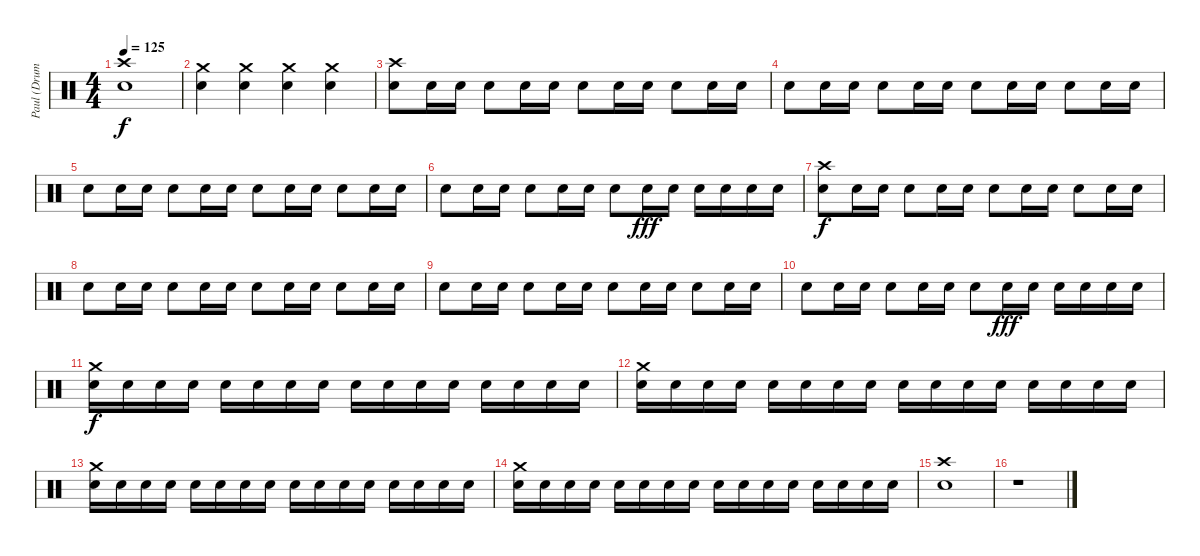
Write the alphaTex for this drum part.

\track ("Paul (Drums)" "Paul (Drum") {instrument percussion}
\staff {score}
\articulation defaults
\ts (4 4)
\tempo 125
\clef neutral
\ks c
("Crash high (hit)" "Snare (hit) 2").1{dy f} |
("Crash medium (hit)" "Snare (hit) 2").4 ("Crash medium (hit)" "Snare (hit) 2").4 ("Crash medium (hit)" "Snare (hit) 2").4 ("Crash medium (hit)" "Snare (hit) 2").4 |
("Crash high (hit)" "Snare (hit) 2").8 "Snare (hit) 2".16 "Snare (hit) 2".16 "Snare (hit) 2".8 "Snare (hit) 2".16 "Snare (hit) 2".16 "Snare (hit) 2".8 "Snare (hit) 2".16 "Snare (hit) 2".16 "Snare (hit) 2".8 "Snare (hit) 2".16 "Snare (hit) 2".16 |
"Snare (hit) 2".8 "Snare (hit) 2".16 "Snare (hit) 2".16 "Snare (hit) 2".8 "Snare (hit) 2".16 "Snare (hit) 2".16 "Snare (hit) 2".8 "Snare (hit) 2".16 "Snare (hit) 2".16 "Snare (hit) 2".8 "Snare (hit) 2".16 "Snare (hit) 2".16 |
"Snare (hit) 2".8 "Snare (hit) 2".16 "Snare (hit) 2".16 "Snare (hit) 2".8 "Snare (hit) 2".16 "Snare (hit) 2".16 "Snare (hit) 2".8 "Snare (hit) 2".16 "Snare (hit) 2".16 "Snare (hit) 2".8 "Snare (hit) 2".16 "Snare (hit) 2".16 |
"Snare (hit) 2".8 "Snare (hit) 2".16 "Snare (hit) 2".16 "Snare (hit) 2".8 "Snare (hit) 2".16 "Snare (hit) 2".16 "Snare (hit) 2".8 "Snare (hit) 2".16{dy fff} "Snare (hit) 2".16 "Snare (hit) 2".16 "Snare (hit) 2".16 "Snare (hit) 2".16 "Snare (hit) 2".16 |
("Crash high (hit)" "Snare (hit) 2").8{dy f} "Snare (hit) 2".16 "Snare (hit) 2".16 "Snare (hit) 2".8 "Snare (hit) 2".16 "Snare (hit) 2".16 "Snare (hit) 2".8 "Snare (hit) 2".16 "Snare (hit) 2".16 "Snare (hit) 2".8 "Snare (hit) 2".16 "Snare (hit) 2".16 |
"Snare (hit) 2".8 "Snare (hit) 2".16 "Snare (hit) 2".16 "Snare (hit) 2".8 "Snare (hit) 2".16 "Snare (hit) 2".16 "Snare (hit) 2".8 "Snare (hit) 2".16 "Snare (hit) 2".16 "Snare (hit) 2".8 "Snare (hit) 2".16 "Snare (hit) 2".16 |
"Snare (hit) 2".8 "Snare (hit) 2".16 "Snare (hit) 2".16 "Snare (hit) 2".8 "Snare (hit) 2".16 "Snare (hit) 2".16 "Snare (hit) 2".8 "Snare (hit) 2".16 "Snare (hit) 2".16 "Snare (hit) 2".8 "Snare (hit) 2".16 "Snare (hit) 2".16 |
"Snare (hit) 2".8 "Snare (hit) 2".16 "Snare (hit) 2".16 "Snare (hit) 2".8 "Snare (hit) 2".16 "Snare (hit) 2".16 "Snare (hit) 2".8 "Snare (hit) 2".16{dy fff} "Snare (hit) 2".16 "Snare (hit) 2".16 "Snare (hit) 2".16 "Snare (hit) 2".16 "Snare (hit) 2".16 |
("Crash medium (hit)" "Snare (hit) 2").16{dy f} "Snare (hit) 2".16 "Snare (hit) 2".16 "Snare (hit) 2".16 "Snare (hit) 2".16 "Snare (hit) 2".16 "Snare (hit) 2".16 "Snare (hit) 2".16 "Snare (hit) 2".16 "Snare (hit) 2".16 "Snare (hit) 2".16 "Snare (hit) 2".16 "Snare (hit) 2".16 "Snare (hit) 2".16 "Snare (hit) 2".16 "Snare (hit) 2".16 |
("Crash medium (hit)" "Snare (hit) 2").16 "Snare (hit) 2".16 "Snare (hit) 2".16 "Snare (hit) 2".16 "Snare (hit) 2".16 "Snare (hit) 2".16 "Snare (hit) 2".16 "Snare (hit) 2".16 "Snare (hit) 2".16 "Snare (hit) 2".16 "Snare (hit) 2".16 "Snare (hit) 2".16 "Snare (hit) 2".16 "Snare (hit) 2".16 "Snare (hit) 2".16 "Snare (hit) 2".16 |
("Crash medium (hit)" "Snare (hit) 2").16 "Snare (hit) 2".16 "Snare (hit) 2".16 "Snare (hit) 2".16 "Snare (hit) 2".16 "Snare (hit) 2".16 "Snare (hit) 2".16 "Snare (hit) 2".16 "Snare (hit) 2".16 "Snare (hit) 2".16 "Snare (hit) 2".16 "Snare (hit) 2".16 "Snare (hit) 2".16 "Snare (hit) 2".16 "Snare (hit) 2".16 "Snare (hit) 2".16 |
("Crash medium (hit)" "Snare (hit) 2").16 "Snare (hit) 2".16 "Snare (hit) 2".16 "Snare (hit) 2".16 "Snare (hit) 2".16 "Snare (hit) 2".16 "Snare (hit) 2".16 "Snare (hit) 2".16 "Snare (hit) 2".16 "Snare (hit) 2".16 "Snare (hit) 2".16 "Snare (hit) 2".16 "Snare (hit) 2".16 "Snare (hit) 2".16 "Snare (hit) 2".16 "Snare (hit) 2".16 |
("Crash high (hit)" "Snare (hit) 2").1 |
r.1
